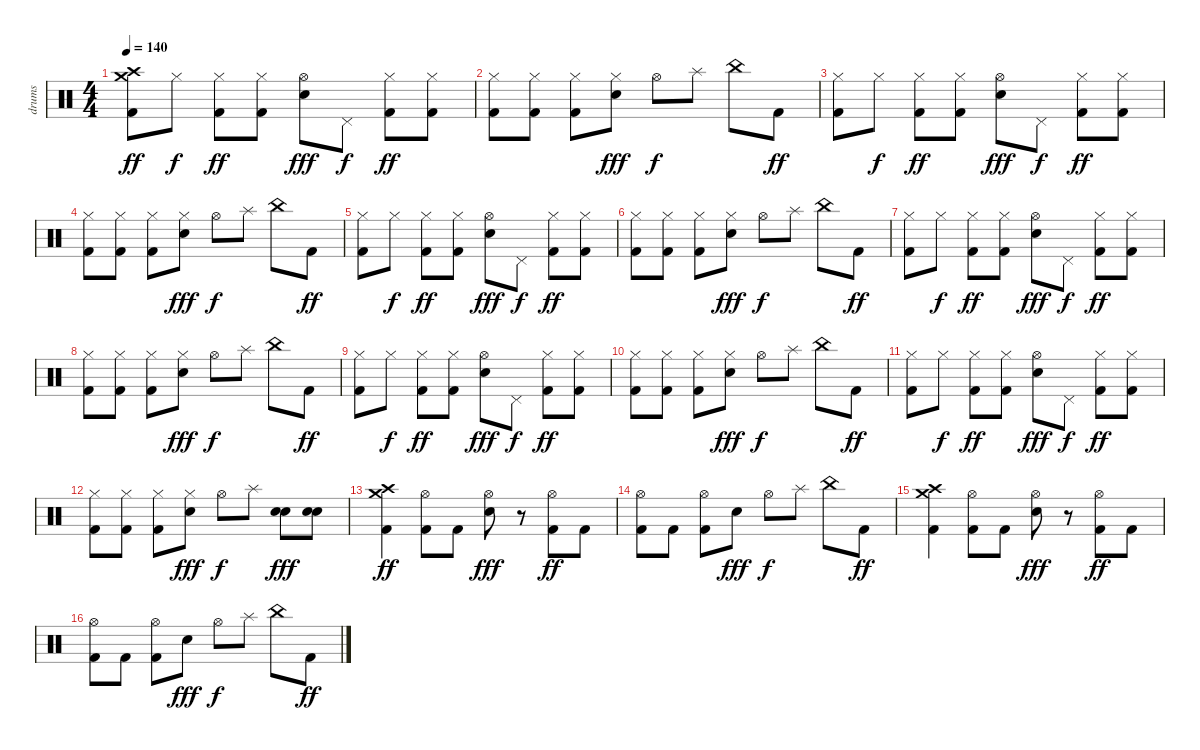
\track ("drums" "drums") {instrument percussion}
\staff {score}
\articulation defaults
\ts (4 4)
\tempo 140
\clef neutral
\ks c
("Crash medium (hit)" "Crash high (hit)" "Kick (hit) 2").8{dy ff} "Hi-Hat (closed)".8{dy f} ("Hi-Hat (closed)" "Kick (hit) 2").8{dy ff} ("Hi-Hat (closed)" "Kick (hit) 2").8 ("Hi-Hat (open)" "Electric Snare (hit)").8{dy fff} "Pedal Hi-Hat (hit)".8{dy f} ("Hi-Hat (closed)" "Kick (hit) 2").8{dy ff} ("Hi-Hat (closed)" "Kick (hit) 2").8 |
("Hi-Hat (closed)" "Kick (hit) 2").8 ("Hi-Hat (closed)" "Kick (hit) 2").8 ("Hi-Hat (closed)" "Kick (hit) 2").8 ("Hi-Hat (closed)" "Electric Snare (hit)").8{dy fff} "Hi-Hat (open)".8{dy f} "Splash (hit)".8 "China (hit)".8 "Kick (hit) 2".8{dy ff} |
("Hi-Hat (closed)" "Kick (hit) 2").8 "Hi-Hat (closed)".8{dy f} ("Hi-Hat (closed)" "Kick (hit) 2").8{dy ff} ("Hi-Hat (closed)" "Kick (hit) 2").8 ("Hi-Hat (open)" "Electric Snare (hit)").8{dy fff} "Pedal Hi-Hat (hit)".8{dy f} ("Hi-Hat (closed)" "Kick (hit) 2").8{dy ff} ("Hi-Hat (closed)" "Kick (hit) 2").8 |
("Hi-Hat (closed)" "Kick (hit) 2").8 ("Hi-Hat (closed)" "Kick (hit) 2").8 ("Hi-Hat (closed)" "Kick (hit) 2").8 ("Hi-Hat (closed)" "Electric Snare (hit)").8{dy fff} "Hi-Hat (open)".8{dy f} "Splash (hit)".8 "China (hit)".8 "Kick (hit) 2".8{dy ff} |
("Hi-Hat (closed)" "Kick (hit) 2").8 "Hi-Hat (closed)".8{dy f} ("Hi-Hat (closed)" "Kick (hit) 2").8{dy ff} ("Hi-Hat (closed)" "Kick (hit) 2").8 ("Hi-Hat (open)" "Electric Snare (hit)").8{dy fff} "Pedal Hi-Hat (hit)".8{dy f} ("Hi-Hat (closed)" "Kick (hit) 2").8{dy ff} ("Hi-Hat (closed)" "Kick (hit) 2").8 |
("Hi-Hat (closed)" "Kick (hit) 2").8 ("Hi-Hat (closed)" "Kick (hit) 2").8 ("Hi-Hat (closed)" "Kick (hit) 2").8 ("Hi-Hat (closed)" "Electric Snare (hit)").8{dy fff} "Hi-Hat (open)".8{dy f} "Splash (hit)".8 "China (hit)".8 "Kick (hit) 2".8{dy ff} |
("Hi-Hat (closed)" "Kick (hit) 2").8 "Hi-Hat (closed)".8{dy f} ("Hi-Hat (closed)" "Kick (hit) 2").8{dy ff} ("Hi-Hat (closed)" "Kick (hit) 2").8 ("Hi-Hat (open)" "Electric Snare (hit)").8{dy fff} "Pedal Hi-Hat (hit)".8{dy f} ("Hi-Hat (closed)" "Kick (hit) 2").8{dy ff} ("Hi-Hat (closed)" "Kick (hit) 2").8 |
("Hi-Hat (closed)" "Kick (hit) 2").8 ("Hi-Hat (closed)" "Kick (hit) 2").8 ("Hi-Hat (closed)" "Kick (hit) 2").8 ("Hi-Hat (closed)" "Electric Snare (hit)").8{dy fff} "Hi-Hat (open)".8{dy f} "Splash (hit)".8 "China (hit)".8 "Kick (hit) 2".8{dy ff} |
("Hi-Hat (closed)" "Kick (hit) 2").8 "Hi-Hat (closed)".8{dy f} ("Hi-Hat (closed)" "Kick (hit) 2").8{dy ff} ("Hi-Hat (closed)" "Kick (hit) 2").8 ("Hi-Hat (open)" "Electric Snare (hit)").8{dy fff} "Pedal Hi-Hat (hit)".8{dy f} ("Hi-Hat (closed)" "Kick (hit) 2").8{dy ff} ("Hi-Hat (closed)" "Kick (hit) 2").8 |
("Hi-Hat (closed)" "Kick (hit) 2").8 ("Hi-Hat (closed)" "Kick (hit) 2").8 ("Hi-Hat (closed)" "Kick (hit) 2").8 ("Hi-Hat (closed)" "Electric Snare (hit)").8{dy fff} "Hi-Hat (open)".8{dy f} "Splash (hit)".8 "China (hit)".8 "Kick (hit) 2".8{dy ff} |
("Hi-Hat (closed)" "Kick (hit) 2").8 "Hi-Hat (closed)".8{dy f} ("Hi-Hat (closed)" "Kick (hit) 2").8{dy ff} ("Hi-Hat (closed)" "Kick (hit) 2").8 ("Hi-Hat (open)" "Electric Snare (hit)").8{dy fff} "Pedal Hi-Hat (hit)".8{dy f} ("Hi-Hat (closed)" "Kick (hit) 2").8{dy ff} ("Hi-Hat (closed)" "Kick (hit) 2").8 |
("Hi-Hat (closed)" "Kick (hit) 2").8 ("Hi-Hat (closed)" "Kick (hit) 2").8 ("Hi-Hat (closed)" "Kick (hit) 2").8 ("Hi-Hat (closed)" "Electric Snare (hit)").8{dy fff} "Hi-Hat (open)".8{dy f} "Splash (hit)".8 ("Electric Snare (hit)" "Electric Snare (hit)").8{dy fff} ("Electric Snare (hit)" "Electric Snare (hit)").8 |
("Crash medium (hit)" "Crash high (hit)" "Kick (hit) 2").4{dy ff} ("Hi-Hat (open)" "Kick (hit) 2").8 "Kick (hit) 2".8 ("Hi-Hat (open)" "Electric Snare (hit)").8{dy fff} r.8 ("Hi-Hat (open)" "Kick (hit) 2").8{dy ff} "Kick (hit) 2".8 |
("Hi-Hat (open)" "Kick (hit) 2").8 "Kick (hit) 2".8 ("Hi-Hat (open)" "Kick (hit) 2").8 "Electric Snare (hit)".8{dy fff} "Hi-Hat (open)".8{dy f} "Splash (hit)".8 "China (hit)".8 "Kick (hit) 2".8{dy ff} |
("Crash medium (hit)" "Crash high (hit)" "Kick (hit) 2").4 ("Hi-Hat (open)" "Kick (hit) 2").8 "Kick (hit) 2".8 ("Hi-Hat (open)" "Electric Snare (hit)").8{dy fff} r.8 ("Hi-Hat (open)" "Kick (hit) 2").8{dy ff} "Kick (hit) 2".8 |
("Hi-Hat (open)" "Kick (hit) 2").8 "Kick (hit) 2".8 ("Hi-Hat (open)" "Kick (hit) 2").8 "Electric Snare (hit)".8{dy fff} "Hi-Hat (open)".8{dy f} "Splash (hit)".8 "China (hit)".8 "Kick (hit) 2".8{dy ff}
